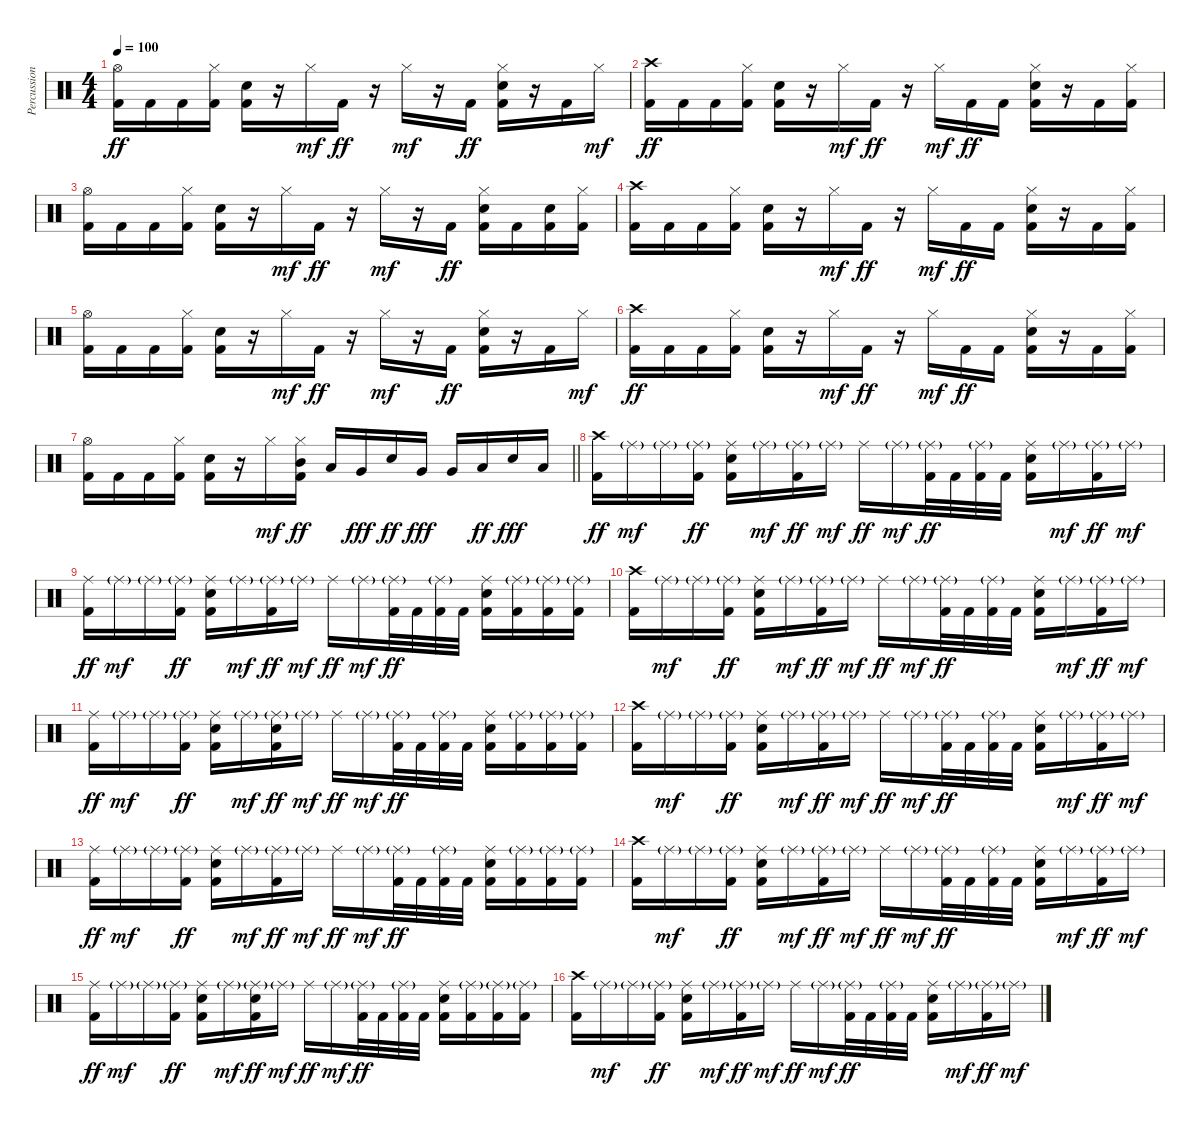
\track ("Percussion" "Percussion") {instrument percussion}
\staff {score}
\articulation defaults
\ts (4 4)
\tempo 100
\clef neutral
\ks c
("Hi-Hat (open)" "Kick (hit) 2").16{dy ff} "Kick (hit) 2".16 "Kick (hit) 2".16 ("Hi-Hat (closed)" "Kick (hit) 2").16 ("Snare (hit) 2" "Kick (hit) 2").16 r.16 "Hi-Hat (closed)".16{dy mf} "Kick (hit) 2".16{dy ff} r.16 "Hi-Hat (closed)".16{dy mf} r.16 "Kick (hit) 2".16{dy ff} ("Hi-Hat (closed)" "Snare (hit) 2" "Kick (hit) 2").16 r.16 "Kick (hit) 2".16 "Hi-Hat (closed)".16{dy mf} |
("Crash high (hit)" "Kick (hit) 2").16{dy ff} "Kick (hit) 2".16 "Kick (hit) 2".16 ("Hi-Hat (closed)" "Kick (hit) 2").16 ("Snare (hit) 2" "Kick (hit) 2").16 r.16 "Hi-Hat (closed)".16{dy mf} "Kick (hit) 2".16{dy ff} r.16 "Hi-Hat (closed)".16{dy mf} "Kick (hit) 2".16{dy ff} "Kick (hit) 2".16 ("Hi-Hat (closed)" "Snare (hit) 2" "Kick (hit) 2").16 r.16 "Kick (hit) 2".16 ("Hi-Hat (closed)" "Kick (hit) 2").16 |
("Hi-Hat (open)" "Kick (hit) 2").16 "Kick (hit) 2".16 "Kick (hit) 2".16 ("Hi-Hat (closed)" "Kick (hit) 2").16 ("Snare (hit) 2" "Kick (hit) 2").16 r.16 "Hi-Hat (closed)".16{dy mf} "Kick (hit) 2".16{dy ff} r.16 "Hi-Hat (closed)".16{dy mf} r.16 "Kick (hit) 2".16{dy ff} ("Hi-Hat (closed)" "Snare (hit) 2" "Kick (hit) 2").16 "Kick (hit) 2".16 ("Snare (hit) 2" "Kick (hit) 2").16 ("Hi-Hat (closed)" "Kick (hit) 2").16 |
("Crash high (hit)" "Kick (hit) 2").16 "Kick (hit) 2".16 "Kick (hit) 2".16 ("Hi-Hat (closed)" "Kick (hit) 2").16 ("Snare (hit) 2" "Kick (hit) 2").16 r.16 "Hi-Hat (closed)".16{dy mf} "Kick (hit) 2".16{dy ff} r.16 "Hi-Hat (closed)".16{dy mf} "Kick (hit) 2".16{dy ff} "Kick (hit) 2".16 ("Hi-Hat (closed)" "Snare (hit) 2" "Kick (hit) 2").16 r.16 "Kick (hit) 2".16 ("Hi-Hat (closed)" "Kick (hit) 2").16 |
("Hi-Hat (open)" "Kick (hit) 2").16 "Kick (hit) 2".16 "Kick (hit) 2".16 ("Hi-Hat (closed)" "Kick (hit) 2").16 ("Snare (hit) 2" "Kick (hit) 2").16 r.16 "Hi-Hat (closed)".16{dy mf} "Kick (hit) 2".16{dy ff} r.16 "Hi-Hat (closed)".16{dy mf} r.16 "Kick (hit) 2".16{dy ff} ("Hi-Hat (closed)" "Snare (hit) 2" "Kick (hit) 2").16 r.16 "Kick (hit) 2".16 "Hi-Hat (closed)".16{dy mf} |
("Crash high (hit)" "Kick (hit) 2").16{dy ff} "Kick (hit) 2".16 "Kick (hit) 2".16 ("Hi-Hat (closed)" "Kick (hit) 2").16 ("Snare (hit) 2" "Kick (hit) 2").16 r.16 "Hi-Hat (closed)".16{dy mf} "Kick (hit) 2".16{dy ff} r.16 "Hi-Hat (closed)".16{dy mf} "Kick (hit) 2".16{dy ff} "Kick (hit) 2".16 ("Hi-Hat (closed)" "Snare (hit) 2" "Kick (hit) 2").16 r.16 "Kick (hit) 2".16 ("Hi-Hat (closed)" "Kick (hit) 2").16 |
\barLineRight lightlight
("Hi-Hat (open)" "Kick (hit) 2").16 "Kick (hit) 2".16 "Kick (hit) 2".16 ("Hi-Hat (closed)" "Kick (hit) 2").16 ("Snare (hit) 2" "Kick (hit) 2").16 r.16 "Hi-Hat (closed)".16{dy mf} ("Hi-Hat (closed)" "Mid Tom (hit)" "Kick (hit) 2").16{dy ff} "Low Tom (hit)".16 "Very Low Tom (hit)".16{dy fff} "Snare (hit) 2".16{dy ff} "Very Low Tom (hit)".16{dy fff} "Very Low Tom (hit)".16 "Low Floor Tom (hit)".16{dy ff} "Snare (hit) 2".16{dy fff} "Low Floor Tom (hit)".16 |
("Crash high (hit)" "Kick (hit) 2").16{dy ff} "Ride (middle)"{g}.16{dy mf} "Ride (middle)"{g}.16 ("Ride (middle)"{g} "Kick (hit) 2").16{dy ff} ("Ride (middle)" "Snare (hit) 2" "Kick (hit) 2").16 "Ride (middle)"{g}.16{dy mf} ("Ride (middle)"{g} "Kick (hit) 2").16{dy ff} "Ride (middle)"{g}.16{dy mf} "Ride (middle)".16{dy ff} "Ride (middle)"{g}.16{dy mf} ("Ride (middle)"{g} "Kick (hit) 2").32{dy ff} "Kick (hit) 2".32 ("Ride (middle)"{g} "Kick (hit) 2").32 "Kick (hit) 2".32 ("Ride (middle)" "Snare (hit) 2" "Kick (hit) 2").16 "Ride (middle)"{g}.16{dy mf} ("Ride (middle)"{g} "Kick (hit) 2").16{dy ff} "Ride (middle)"{g}.16{dy mf} |
("Ride (middle)" "Kick (hit) 2").16{dy ff} "Ride (middle)"{g}.16{dy mf} "Ride (middle)"{g}.16 ("Ride (middle)"{g} "Kick (hit) 2").16{dy ff} ("Ride (middle)" "Snare (hit) 2" "Kick (hit) 2").16 "Ride (middle)"{g}.16{dy mf} ("Ride (middle)"{g} "Kick (hit) 2").16{dy ff} "Ride (middle)"{g}.16{dy mf} "Ride (middle)".16{dy ff} "Ride (middle)"{g}.16{dy mf} ("Ride (middle)"{g} "Kick (hit) 2").32{dy ff} "Kick (hit) 2".32 ("Ride (middle)"{g} "Kick (hit) 2").32 "Kick (hit) 2".32 ("Ride (middle)" "Snare (hit) 2" "Kick (hit) 2").16 ("Ride (middle)"{g} "Kick (hit) 2").16 ("Ride (middle)"{g} "Kick (hit) 2").16 ("Ride (middle)"{g} "Kick (hit) 2").16 |
("Crash high (hit)" "Kick (hit) 2").16 "Ride (middle)"{g}.16{dy mf} "Ride (middle)"{g}.16 ("Ride (middle)"{g} "Kick (hit) 2").16{dy ff} ("Ride (middle)" "Snare (hit) 2" "Kick (hit) 2").16 "Ride (middle)"{g}.16{dy mf} ("Ride (middle)"{g} "Kick (hit) 2").16{dy ff} "Ride (middle)"{g}.16{dy mf} "Ride (middle)".16{dy ff} "Ride (middle)"{g}.16{dy mf} ("Ride (middle)"{g} "Kick (hit) 2").32{dy ff} "Kick (hit) 2".32 ("Ride (middle)"{g} "Kick (hit) 2").32 "Kick (hit) 2".32 ("Ride (middle)" "Snare (hit) 2" "Kick (hit) 2").16 "Ride (middle)"{g}.16{dy mf} ("Ride (middle)"{g} "Kick (hit) 2").16{dy ff} "Ride (middle)"{g}.16{dy mf} |
("Ride (middle)" "Kick (hit) 2").16{dy ff} "Ride (middle)"{g}.16{dy mf} "Ride (middle)"{g}.16 ("Ride (middle)"{g} "Kick (hit) 2").16{dy ff} ("Ride (middle)" "Snare (hit) 2" "Kick (hit) 2").16 "Ride (middle)"{g}.16{dy mf} ("Ride (middle)"{g} "Snare (hit) 2" "Kick (hit) 2").16{dy ff} "Ride (middle)"{g}.16{dy mf} "Ride (middle)".16{dy ff} "Ride (middle)"{g}.16{dy mf} ("Ride (middle)"{g} "Kick (hit) 2").32{dy ff} "Kick (hit) 2".32 ("Ride (middle)"{g} "Kick (hit) 2").32 "Kick (hit) 2".32 ("Ride (middle)" "Snare (hit) 2" "Kick (hit) 2").16 ("Ride (middle)"{g} "Kick (hit) 2").16 ("Ride (middle)"{g} "Kick (hit) 2").16 ("Ride (middle)"{g} "Kick (hit) 2").16 |
("Crash high (hit)" "Kick (hit) 2").16 "Ride (middle)"{g}.16{dy mf} "Ride (middle)"{g}.16 ("Ride (middle)"{g} "Kick (hit) 2").16{dy ff} ("Ride (middle)" "Snare (hit) 2" "Kick (hit) 2").16 "Ride (middle)"{g}.16{dy mf} ("Ride (middle)"{g} "Kick (hit) 2").16{dy ff} "Ride (middle)"{g}.16{dy mf} "Ride (middle)".16{dy ff} "Ride (middle)"{g}.16{dy mf} ("Ride (middle)"{g} "Kick (hit) 2").32{dy ff} "Kick (hit) 2".32 ("Ride (middle)"{g} "Kick (hit) 2").32 "Kick (hit) 2".32 ("Ride (middle)" "Snare (hit) 2" "Kick (hit) 2").16 "Ride (middle)"{g}.16{dy mf} ("Ride (middle)"{g} "Kick (hit) 2").16{dy ff} "Ride (middle)"{g}.16{dy mf} |
("Ride (middle)" "Kick (hit) 2").16{dy ff} "Ride (middle)"{g}.16{dy mf} "Ride (middle)"{g}.16 ("Ride (middle)"{g} "Kick (hit) 2").16{dy ff} ("Ride (middle)" "Snare (hit) 2" "Kick (hit) 2").16 "Ride (middle)"{g}.16{dy mf} ("Ride (middle)"{g} "Kick (hit) 2").16{dy ff} "Ride (middle)"{g}.16{dy mf} "Ride (middle)".16{dy ff} "Ride (middle)"{g}.16{dy mf} ("Ride (middle)"{g} "Kick (hit) 2").32{dy ff} "Kick (hit) 2".32 ("Ride (middle)"{g} "Kick (hit) 2").32 "Kick (hit) 2".32 ("Ride (middle)" "Snare (hit) 2" "Kick (hit) 2").16 ("Ride (middle)"{g} "Kick (hit) 2").16 ("Ride (middle)"{g} "Kick (hit) 2").16 ("Ride (middle)"{g} "Kick (hit) 2").16 |
("Crash high (hit)" "Kick (hit) 2").16 "Ride (middle)"{g}.16{dy mf} "Ride (middle)"{g}.16 ("Ride (middle)"{g} "Kick (hit) 2").16{dy ff} ("Ride (middle)" "Snare (hit) 2" "Kick (hit) 2").16 "Ride (middle)"{g}.16{dy mf} ("Ride (middle)"{g} "Kick (hit) 2").16{dy ff} "Ride (middle)"{g}.16{dy mf} "Ride (middle)".16{dy ff} "Ride (middle)"{g}.16{dy mf} ("Ride (middle)"{g} "Kick (hit) 2").32{dy ff} "Kick (hit) 2".32 ("Ride (middle)"{g} "Kick (hit) 2").32 "Kick (hit) 2".32 ("Ride (middle)" "Snare (hit) 2" "Kick (hit) 2").16 "Ride (middle)"{g}.16{dy mf} ("Ride (middle)"{g} "Kick (hit) 2").16{dy ff} "Ride (middle)"{g}.16{dy mf} |
("Ride (middle)" "Kick (hit) 2").16{dy ff} "Ride (middle)"{g}.16{dy mf} "Ride (middle)"{g}.16 ("Ride (middle)"{g} "Kick (hit) 2").16{dy ff} ("Ride (middle)" "Snare (hit) 2" "Kick (hit) 2").16 "Ride (middle)"{g}.16{dy mf} ("Ride (middle)"{g} "Snare (hit) 2" "Kick (hit) 2").16{dy ff} "Ride (middle)"{g}.16{dy mf} "Ride (middle)".16{dy ff} "Ride (middle)"{g}.16{dy mf} ("Ride (middle)"{g} "Kick (hit) 2").32{dy ff} "Kick (hit) 2".32 ("Ride (middle)"{g} "Kick (hit) 2").32 "Kick (hit) 2".32 ("Ride (middle)" "Snare (hit) 2" "Kick (hit) 2").16 ("Ride (middle)"{g} "Kick (hit) 2").16 ("Ride (middle)"{g} "Kick (hit) 2").16 ("Ride (middle)"{g} "Kick (hit) 2").16 |
("Crash high (hit)" "Kick (hit) 2").16 "Ride (middle)"{g}.16{dy mf} "Ride (middle)"{g}.16 ("Ride (middle)"{g} "Kick (hit) 2").16{dy ff} ("Ride (middle)" "Snare (hit) 2" "Kick (hit) 2").16 "Ride (middle)"{g}.16{dy mf} ("Ride (middle)"{g} "Kick (hit) 2").16{dy ff} "Ride (middle)"{g}.16{dy mf} "Ride (middle)".16{dy ff} "Ride (middle)"{g}.16{dy mf} ("Ride (middle)"{g} "Kick (hit) 2").32{dy ff} "Kick (hit) 2".32 ("Ride (middle)"{g} "Kick (hit) 2").32 "Kick (hit) 2".32 ("Ride (middle)" "Snare (hit) 2" "Kick (hit) 2").16 "Ride (middle)"{g}.16{dy mf} ("Ride (middle)"{g} "Kick (hit) 2").16{dy ff} "Ride (middle)"{g}.16{dy mf}
